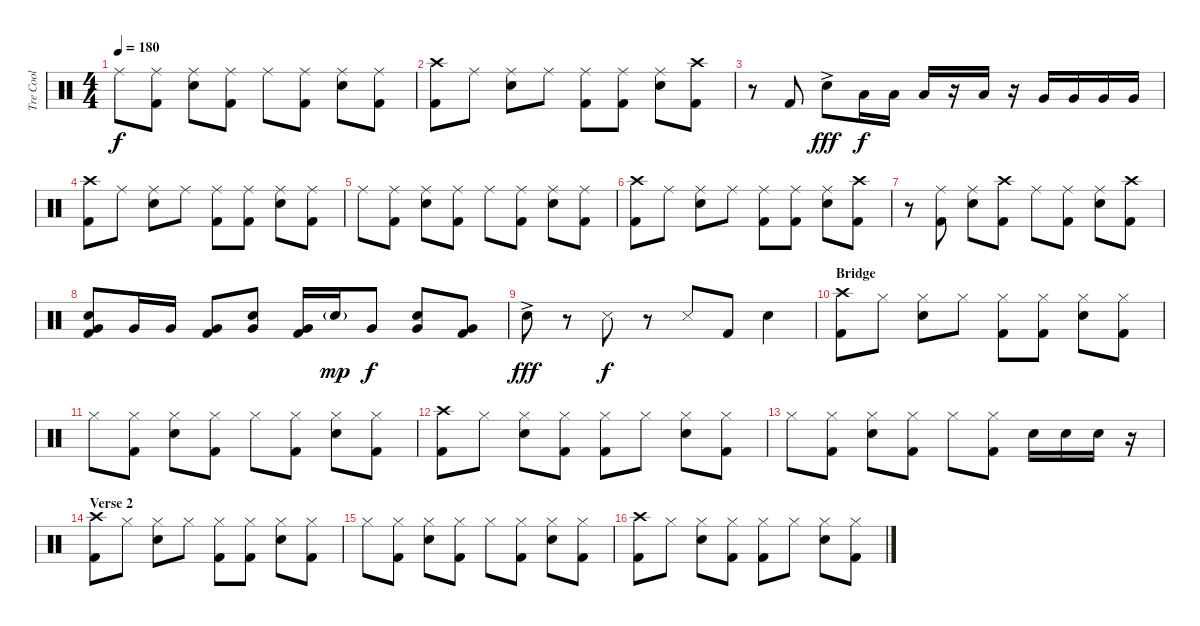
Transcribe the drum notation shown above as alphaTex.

\track ("Tre Cool" "Tre Cool") {instrument percussion}
\staff {score}
\articulation defaults
\ts (4 4)
\tempo 180
\clef neutral
\ks c "Ride (middle)".8{dy f}
("Ride (middle)" "Kick (hit) 2").8 ("Ride (middle)" "Electric Snare (hit)").8 ("Ride (middle)" "Kick (hit) 2").8 "Ride (middle)".8 ("Ride (middle)" "Kick (hit) 2").8 ("Ride (middle)" "Electric Snare (hit)").8 ("Ride (middle)" "Kick (hit) 2").8 |
("Crash high (hit)" "Kick (hit) 2").8 "Ride (middle)".8 ("Ride (middle)" "Electric Snare (hit)").8 "Ride (middle)".8 ("Ride (middle)" "Kick (hit) 2").8 ("Ride (middle)" "Kick (hit) 2").8 ("Ride (middle)" "Electric Snare (hit)").8 ("Crash high (hit)" "Kick (hit) 2").8 |
r.8 "Kick (hit) 2".8 "Electric Snare (hit)"{ac}.8{dy fff} "Low Tom (hit)".16{dy f} "Low Tom (hit)".16 "Low Tom (hit)".16 r.16 "Low Tom (hit)".16 r.16 "Very Low Tom (hit)".16 "Very Low Tom (hit)".16 "Very Low Tom (hit)".16 "Very Low Tom (hit)".16 |
("Crash high (hit)" "Kick (hit) 2").8 "Ride (middle)".8 ("Ride (middle)" "Electric Snare (hit)").8 "Ride (middle)".8 ("Ride (middle)" "Kick (hit) 2").8 ("Ride (middle)" "Kick (hit) 2").8 ("Ride (middle)" "Electric Snare (hit)").8 ("Ride (middle)" "Kick (hit) 2").8 |
"Ride (middle)".8 ("Ride (middle)" "Kick (hit) 2").8 ("Ride (middle)" "Electric Snare (hit)").8 ("Ride (middle)" "Kick (hit) 2").8 "Ride (middle)".8 ("Ride (middle)" "Kick (hit) 2").8 ("Ride (middle)" "Electric Snare (hit)").8 ("Ride (middle)" "Kick (hit) 2").8 |
("Crash high (hit)" "Kick (hit) 2").8 "Ride (middle)".8 ("Ride (middle)" "Electric Snare (hit)").8 "Ride (middle)".8 ("Ride (middle)" "Kick (hit) 2").8 ("Ride (middle)" "Kick (hit) 2").8 ("Ride (middle)" "Electric Snare (hit)").8 ("Crash high (hit)" "Kick (hit) 2").8 |
r.8 ("Ride (middle)" "Kick (hit) 2").8 ("Ride (middle)" "Electric Snare (hit)").8 ("Crash high (hit)" "Kick (hit) 2").8 "Ride (middle)".8 ("Ride (middle)" "Kick (hit) 2").8 ("Ride (middle)" "Electric Snare (hit)").8 ("Crash high (hit)" "Kick (hit) 2").8 |
("Electric Snare (hit)" "Very Low Tom (hit)" "Kick (hit) 2").8 "Very Low Tom (hit)".16 "Very Low Tom (hit)".16 ("Very Low Tom (hit)" "Kick (hit) 2").8 ("Electric Snare (hit)" "Very Low Tom (hit)").8 ("Very Low Tom (hit)" "Kick (hit) 2").16 "Electric Snare (hit)"{g}.16{dy mp} "Very Low Tom (hit)".8{dy f} ("Electric Snare (hit)" "Very Low Tom (hit)").8 ("Very Low Tom (hit)" "Kick (hit) 2").8 |
"Electric Snare (hit)"{ac}.8{dy fff} r.8 "Snare (side stick) 3".8{dy f} r.8 "Snare (side stick) 3".8 "Kick (hit) 2".8 "Electric Snare (hit)".4 |
\section ("" "Bridge")
("Crash high (hit)" "Kick (hit) 2").8 "Hi-Hat (closed)".8 ("Hi-Hat (closed)" "Electric Snare (hit)").8 "Hi-Hat (closed)".8 ("Hi-Hat (closed)" "Kick (hit) 2").8 ("Hi-Hat (closed)" "Kick (hit) 2").8 ("Hi-Hat (closed)" "Electric Snare (hit)").8 ("Hi-Hat (closed)" "Kick (hit) 2").8 |
"Hi-Hat (closed)".8 ("Hi-Hat (closed)" "Kick (hit) 2").8 ("Hi-Hat (closed)" "Electric Snare (hit)").8 ("Hi-Hat (closed)" "Kick (hit) 2").8 "Hi-Hat (closed)".8 ("Hi-Hat (closed)" "Kick (hit) 2").8 ("Hi-Hat (closed)" "Electric Snare (hit)").8 ("Hi-Hat (closed)" "Kick (hit) 2").8 |
("Crash high (hit)" "Kick (hit) 2").8 "Hi-Hat (closed)".8 ("Hi-Hat (closed)" "Electric Snare (hit)").8 ("Hi-Hat (closed)" "Kick (hit) 2").8 ("Hi-Hat (closed)" "Kick (hit) 2").8 "Hi-Hat (closed)".8 ("Hi-Hat (closed)" "Electric Snare (hit)").8 ("Hi-Hat (closed)" "Kick (hit) 2").8 |
"Hi-Hat (closed)".8 ("Hi-Hat (closed)" "Kick (hit) 2").8 ("Hi-Hat (closed)" "Electric Snare (hit)").8 ("Hi-Hat (closed)" "Kick (hit) 2").8 "Hi-Hat (closed)".8 ("Hi-Hat (closed)" "Kick (hit) 2").8 "Electric Snare (hit)".16 "Electric Snare (hit)".16 "Electric Snare (hit)".16 r.16 |
\section ("" "Verse 2")
("Crash high (hit)" "Kick (hit) 2").8 "Hi-Hat (closed)".8 ("Hi-Hat (closed)" "Electric Snare (hit)").8 "Hi-Hat (closed)".8 ("Hi-Hat (closed)" "Kick (hit) 2").8 ("Hi-Hat (closed)" "Kick (hit) 2").8 ("Hi-Hat (closed)" "Electric Snare (hit)").8 ("Hi-Hat (closed)" "Kick (hit) 2").8 |
"Hi-Hat (closed)".8 ("Hi-Hat (closed)" "Kick (hit) 2").8 ("Hi-Hat (closed)" "Electric Snare (hit)").8 ("Hi-Hat (closed)" "Kick (hit) 2").8 "Hi-Hat (closed)".8 ("Hi-Hat (closed)" "Kick (hit) 2").8 ("Hi-Hat (closed)" "Electric Snare (hit)").8 ("Hi-Hat (closed)" "Kick (hit) 2").8 |
("Crash high (hit)" "Kick (hit) 2").8 "Hi-Hat (closed)".8 ("Hi-Hat (closed)" "Electric Snare (hit)").8 ("Hi-Hat (closed)" "Kick (hit) 2").8 ("Hi-Hat (closed)" "Kick (hit) 2").8 "Hi-Hat (closed)".8 ("Hi-Hat (closed)" "Electric Snare (hit)").8 ("Hi-Hat (closed)" "Kick (hit) 2").8
